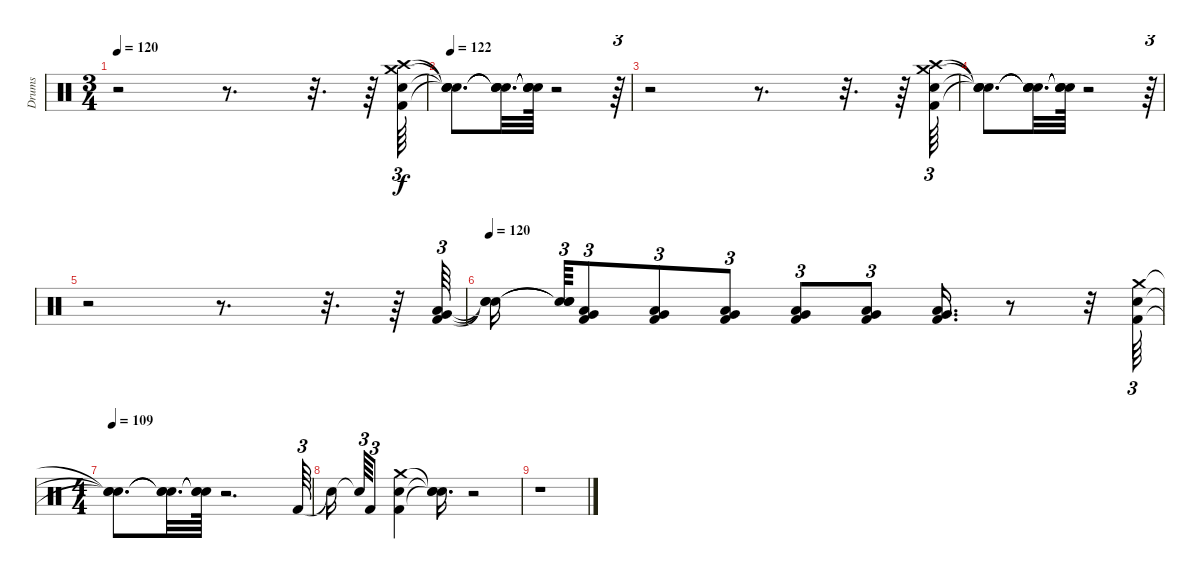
\track ("Drums" "Drums") {instrument percussion}
\staff {score}
\articulation defaults
\ts (3 4)
\tempo 120
\clef neutral
\ks c
r.2{dy f} r.8{d} r.32{d} r.64 ("Crash medium (hit)" "Crash high (hit)" "Snare (hit) 2" "Kick (hit) 2").64{tu (3 2)} |
\tempo 122
("Snare (hit)"{t} "Snare (hit)"{t} "Snare (hit)"{t} "Snare (hit)"{t}).8{d} ("Snare (hit)"{t} "Snare (hit)"{t} "Snare (hit)"{t} "Snare (hit)"{t}).32{d} ("Snare (hit)"{t} "Snare (hit)"{t} "Snare (hit)"{t} "Snare (hit)"{t}).64 r.2 r.64{tu (3 2)} |
r.2 r.8{d} r.32{d} r.64 ("Crash medium (hit)" "Crash high (hit)" "Snare (hit) 2" "Kick (hit) 2").64{tu (3 2)} |
("Snare (hit)"{t} "Snare (hit)"{t} "Snare (hit)"{t} "Snare (hit)"{t}).8{d} ("Snare (hit)"{t} "Snare (hit)"{t} "Snare (hit)"{t} "Snare (hit)"{t}).32{d} ("Snare (hit)"{t} "Snare (hit)"{t} "Snare (hit)"{t} "Snare (hit)"{t}).64 r.2 r.64{tu (3 2)} |
r.2 r.8{d} r.32{d} r.64 ("Very Low Tom (hit)" "Low Tom (hit)" "Kick (hit) 2").64{tu (3 2)} |
\tempo 120
("Snare (hit)"{t} "Snare (hit)"{t} "Snare (hit)"{t}).16{beam splitsecondary} ("Snare (hit)"{t} "Snare (hit)"{t} "Snare (hit)"{t}).64{tu (3 2)} ("Very Low Tom (hit)" "Low Tom (hit)" "Kick (hit) 2").8{tu (3 2)} ("Very Low Tom (hit)" "Low Tom (hit)" "Kick (hit) 2").8{tu (3 2)} ("Very Low Tom (hit)" "Low Tom (hit)" "Kick (hit) 2").8{tu (3 2)} ("Very Low Tom (hit)" "Low Tom (hit)" "Kick (hit) 2").8{tu (3 2)} ("Very Low Tom (hit)" "Low Tom (hit)" "Kick (hit) 2").8{tu (3 2)} ("Very Low Tom (hit)" "Low Tom (hit)" "Kick (hit) 2").16{d} r.8 r.32 ("Crash medium (hit)" "Snare (hit) 2" "Kick (hit) 2").64{tu (3 2)} |
\ts (4 4)
\tempo 109
("Snare (hit)"{t} "Snare (hit)"{t} "Snare (hit)"{t}).8{d} ("Snare (hit)"{t} "Snare (hit)"{t} "Snare (hit)"{t}).32{d} ("Snare (hit)"{t} "Snare (hit)"{t} "Snare (hit)"{t}).64 r.2{d} "Kick (hit) 2".64{tu (3 2)} |
"Snare (hit)"{t}.16{beam splitsecondary} "Snare (hit)"{t}.64{tu (3 2)} "Kick (hit) 2".8{tu (3 2)} ("Crash medium (hit)" "Kick (hit) 2" "Snare (hit) 2").4 ("Snare (hit)"{t} "Snare (hit)"{t} "Snare (hit)"{t}).16{d} r.2 |
r.1
